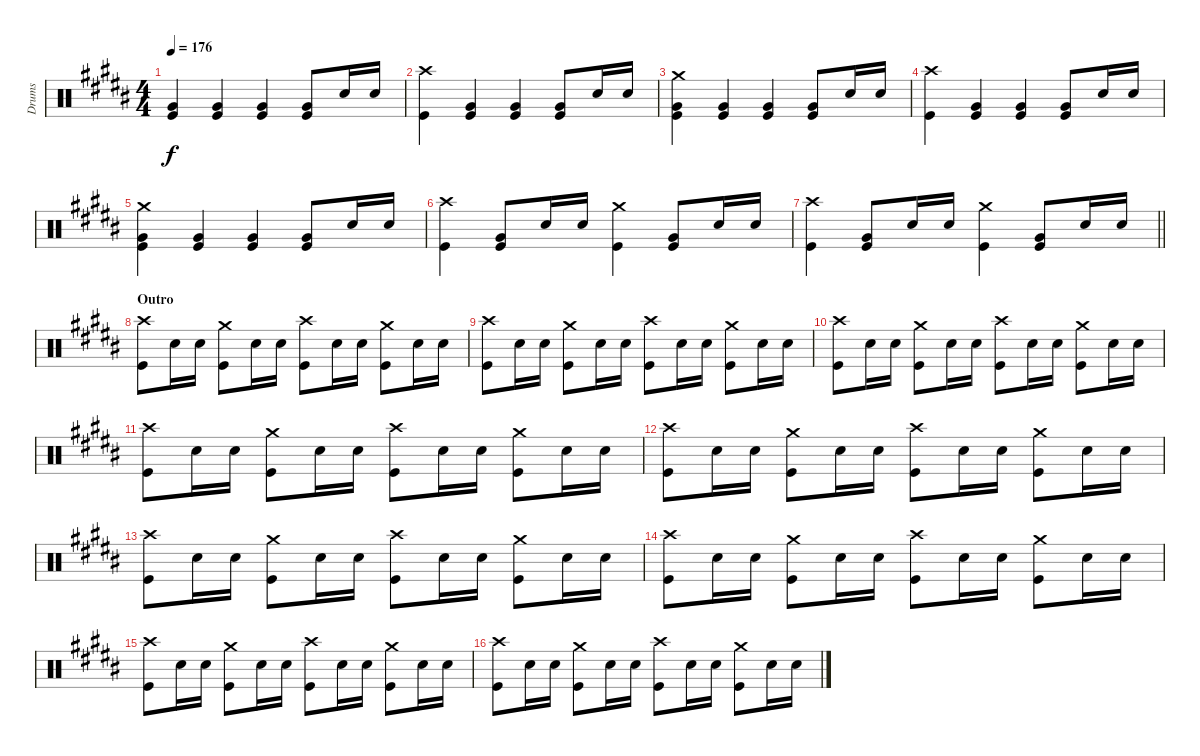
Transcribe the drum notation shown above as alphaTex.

\track ("Drums" "Drums") {instrument percussion}
\staff {score}
\articulation defaults
\ts (4 4)
\tempo 176
\clef neutral
\ks b
("Very Low Tom (hit)" "Kick (hit)").4{dy f} ("Very Low Tom (hit)" "Kick (hit)").4 ("Very Low Tom (hit)" "Kick (hit)").4 ("Very Low Tom (hit)" "Kick (hit)").8 "Snare (hit) 2".16 "Snare (hit) 2".16 |
("Crash high (hit)" "Kick (hit)").4 ("Kick (hit)" "Very Low Tom (hit)").4 ("Kick (hit)" "Very Low Tom (hit)").4 ("Kick (hit)" "Very Low Tom (hit)").8 "Snare (hit) 2".16 "Snare (hit) 2".16 |
("Very Low Tom (hit)" "Kick (hit)" "Crash medium (hit)").4 ("Very Low Tom (hit)" "Kick (hit)").4 ("Very Low Tom (hit)" "Kick (hit)").4 ("Very Low Tom (hit)" "Kick (hit)").8 "Snare (hit) 2".16 "Snare (hit) 2".16 |
("Crash high (hit)" "Kick (hit)").4 ("Kick (hit)" "Very Low Tom (hit)").4 ("Kick (hit)" "Very Low Tom (hit)").4 ("Kick (hit)" "Very Low Tom (hit)").8 "Snare (hit) 2".16 "Snare (hit) 2".16 |
("Very Low Tom (hit)" "Kick (hit)" "Crash medium (hit)").4 ("Very Low Tom (hit)" "Kick (hit)").4 ("Very Low Tom (hit)" "Kick (hit)").4 ("Very Low Tom (hit)" "Kick (hit)").8 "Snare (hit) 2".16 "Snare (hit) 2".16 |
("Kick (hit)" "Crash high (hit)").4 ("Kick (hit)" "Very Low Tom (hit)").8 "Snare (hit) 2".16 "Snare (hit) 2".16 ("Crash medium (hit)" "Kick (hit)").4 ("Very Low Tom (hit)" "Kick (hit)").8 "Snare (hit) 2".16 "Snare (hit) 2".16 |
\barLineRight lightlight
("Kick (hit)" "Crash high (hit)").4 ("Kick (hit)" "Very Low Tom (hit)").8 "Snare (hit) 2".16 "Snare (hit) 2".16 ("Crash medium (hit)" "Kick (hit)").4 ("Very Low Tom (hit)" "Kick (hit)").8 "Snare (hit) 2".16 "Snare (hit) 2".16 |
\section ("" "Outro")
("Kick (hit)" "Crash high (hit)").8 "Snare (hit) 2".16 "Snare (hit) 2".16 ("Kick (hit)" "Crash medium (hit)").8 "Snare (hit) 2".16 "Snare (hit) 2".16 ("Kick (hit)" "Crash high (hit)").8 "Snare (hit) 2".16 "Snare (hit) 2".16 ("Kick (hit)" "Crash medium (hit)").8 "Snare (hit) 2".16 "Snare (hit) 2".16 |
("Kick (hit)" "Crash high (hit)").8 "Snare (hit) 2".16 "Snare (hit) 2".16 ("Kick (hit)" "Crash medium (hit)").8 "Snare (hit) 2".16 "Snare (hit) 2".16 ("Kick (hit)" "Crash high (hit)").8 "Snare (hit) 2".16 "Snare (hit) 2".16 ("Kick (hit)" "Crash medium (hit)").8 "Snare (hit) 2".16 "Snare (hit) 2".16 |
("Kick (hit)" "Crash high (hit)").8 "Snare (hit) 2".16 "Snare (hit) 2".16 ("Kick (hit)" "Crash medium (hit)").8 "Snare (hit) 2".16 "Snare (hit) 2".16 ("Kick (hit)" "Crash high (hit)").8 "Snare (hit) 2".16 "Snare (hit) 2".16 ("Kick (hit)" "Crash medium (hit)").8 "Snare (hit) 2".16 "Snare (hit) 2".16 |
("Kick (hit)" "Crash high (hit)").8 "Snare (hit) 2".16 "Snare (hit) 2".16 ("Kick (hit)" "Crash medium (hit)").8 "Snare (hit) 2".16 "Snare (hit) 2".16 ("Kick (hit)" "Crash high (hit)").8 "Snare (hit) 2".16 "Snare (hit) 2".16 ("Kick (hit)" "Crash medium (hit)").8 "Snare (hit) 2".16 "Snare (hit) 2".16 |
("Kick (hit)" "Crash high (hit)").8 "Snare (hit) 2".16 "Snare (hit) 2".16 ("Kick (hit)" "Crash medium (hit)").8 "Snare (hit) 2".16 "Snare (hit) 2".16 ("Kick (hit)" "Crash high (hit)").8 "Snare (hit) 2".16 "Snare (hit) 2".16 ("Kick (hit)" "Crash medium (hit)").8 "Snare (hit) 2".16 "Snare (hit) 2".16 |
("Kick (hit)" "Crash high (hit)").8 "Snare (hit) 2".16 "Snare (hit) 2".16 ("Kick (hit)" "Crash medium (hit)").8 "Snare (hit) 2".16 "Snare (hit) 2".16 ("Kick (hit)" "Crash high (hit)").8 "Snare (hit) 2".16 "Snare (hit) 2".16 ("Kick (hit)" "Crash medium (hit)").8 "Snare (hit) 2".16 "Snare (hit) 2".16 |
("Kick (hit)" "Crash high (hit)").8 "Snare (hit) 2".16 "Snare (hit) 2".16 ("Kick (hit)" "Crash medium (hit)").8 "Snare (hit) 2".16 "Snare (hit) 2".16 ("Kick (hit)" "Crash high (hit)").8 "Snare (hit) 2".16 "Snare (hit) 2".16 ("Kick (hit)" "Crash medium (hit)").8 "Snare (hit) 2".16 "Snare (hit) 2".16 |
("Kick (hit)" "Crash high (hit)").8 "Snare (hit) 2".16 "Snare (hit) 2".16 ("Kick (hit)" "Crash medium (hit)").8 "Snare (hit) 2".16 "Snare (hit) 2".16 ("Kick (hit)" "Crash high (hit)").8 "Snare (hit) 2".16 "Snare (hit) 2".16 ("Kick (hit)" "Crash medium (hit)").8 "Snare (hit) 2".16 "Snare (hit) 2".16 |
("Kick (hit)" "Crash high (hit)").8 "Snare (hit) 2".16 "Snare (hit) 2".16 ("Kick (hit)" "Crash medium (hit)").8 "Snare (hit) 2".16 "Snare (hit) 2".16 ("Kick (hit)" "Crash high (hit)").8 "Snare (hit) 2".16 "Snare (hit) 2".16 ("Kick (hit)" "Crash medium (hit)").8 "Snare (hit) 2".16 "Snare (hit) 2".16
